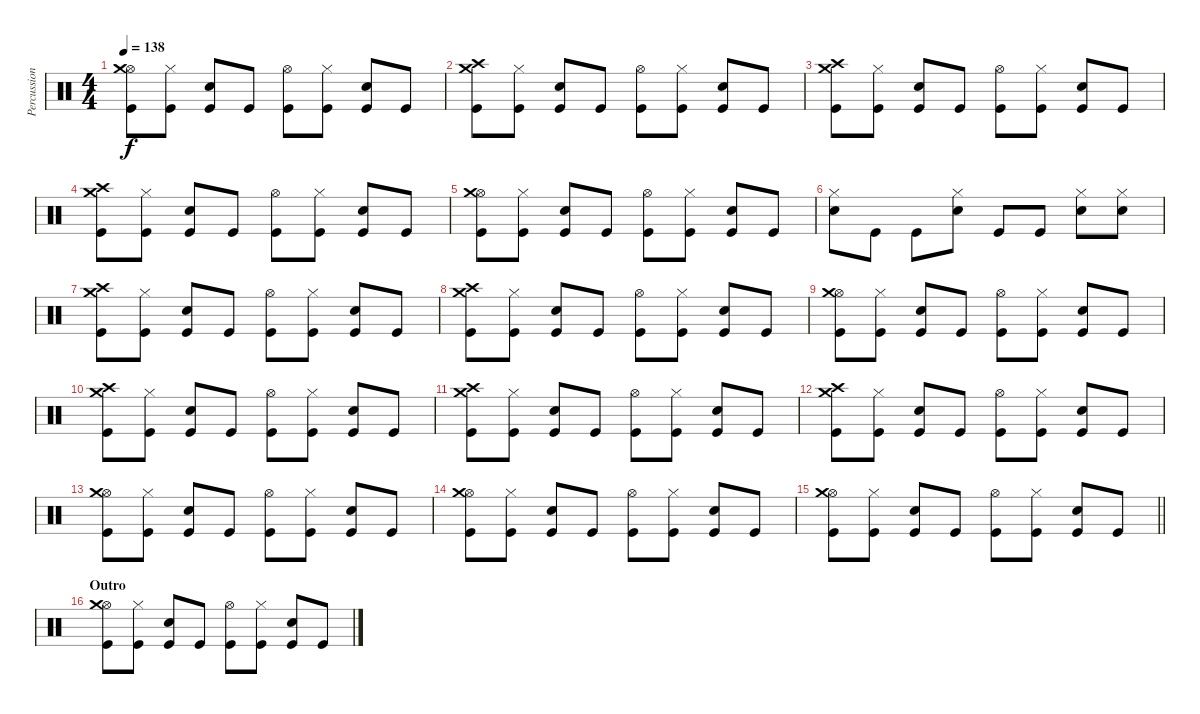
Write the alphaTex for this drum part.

\track ("Percussioni" "Percussion") {instrument percussion}
\staff {score}
\articulation defaults
\ts (4 4)
\tempo 138
\clef neutral
\ks c
("Kick (hit)" "Hi-Hat (open)" "Crash medium (hit)").8{dy f} ("Hi-Hat (closed)" "Kick (hit)").8 ("Electric Snare (hit)" "Kick (hit)").8 "Kick (hit)".8 ("Hi-Hat (open)" "Kick (hit)").8 ("Hi-Hat (closed)" "Kick (hit)").8 ("Electric Snare (hit)" "Kick (hit)").8 "Kick (hit)".8 |
("Kick (hit)" "Crash high (hit)" "Crash medium (hit)").8 ("Hi-Hat (closed)" "Kick (hit)").8 ("Electric Snare (hit)" "Kick (hit)").8 "Kick (hit)".8 ("Hi-Hat (open)" "Kick (hit)").8 ("Hi-Hat (closed)" "Kick (hit)").8 ("Electric Snare (hit)" "Kick (hit)").8 "Kick (hit)".8 |
("Kick (hit)" "Crash high (hit)" "Crash medium (hit)").8 ("Hi-Hat (closed)" "Kick (hit)").8 ("Electric Snare (hit)" "Kick (hit)").8 "Kick (hit)".8 ("Hi-Hat (open)" "Kick (hit)").8 ("Hi-Hat (closed)" "Kick (hit)").8 ("Electric Snare (hit)" "Kick (hit)").8 "Kick (hit)".8 |
("Kick (hit)" "Crash high (hit)" "Crash medium (hit)").8 ("Hi-Hat (closed)" "Kick (hit)").8 ("Electric Snare (hit)" "Kick (hit)").8 "Kick (hit)".8 ("Hi-Hat (open)" "Kick (hit)").8 ("Hi-Hat (closed)" "Kick (hit)").8 ("Electric Snare (hit)" "Kick (hit)").8 "Kick (hit)".8 |
("Kick (hit)" "Hi-Hat (open)" "Crash medium (hit)").8 ("Hi-Hat (closed)" "Kick (hit)").8 ("Electric Snare (hit)" "Kick (hit)").8 "Kick (hit)".8 ("Hi-Hat (open)" "Kick (hit)").8 ("Hi-Hat (closed)" "Kick (hit)").8 ("Electric Snare (hit)" "Kick (hit)").8 "Kick (hit)".8 |
("Electric Snare (hit)" "Hi-Hat (closed)").8 "Kick (hit)".8 "Kick (hit)".8 ("Electric Snare (hit)" "Hi-Hat (closed)").8 "Kick (hit)".8 "Kick (hit)".8 ("Electric Snare (hit)" "Hi-Hat (closed)").8 ("Electric Snare (hit)" "Hi-Hat (closed)").8 |
("Kick (hit)" "Crash high (hit)" "Crash medium (hit)").8 ("Hi-Hat (closed)" "Kick (hit)").8 ("Electric Snare (hit)" "Kick (hit)").8 "Kick (hit)".8 ("Hi-Hat (open)" "Kick (hit)").8 ("Hi-Hat (closed)" "Kick (hit)").8 ("Electric Snare (hit)" "Kick (hit)").8 "Kick (hit)".8 |
("Kick (hit)" "Crash high (hit)" "Crash medium (hit)").8 ("Hi-Hat (closed)" "Kick (hit)").8 ("Electric Snare (hit)" "Kick (hit)").8 "Kick (hit)".8 ("Hi-Hat (open)" "Kick (hit)").8 ("Hi-Hat (closed)" "Kick (hit)").8 ("Electric Snare (hit)" "Kick (hit)").8 "Kick (hit)".8 |
("Kick (hit)" "Hi-Hat (open)" "Crash medium (hit)").8 ("Hi-Hat (closed)" "Kick (hit)").8 ("Electric Snare (hit)" "Kick (hit)").8 "Kick (hit)".8 ("Hi-Hat (open)" "Kick (hit)").8 ("Hi-Hat (closed)" "Kick (hit)").8 ("Electric Snare (hit)" "Kick (hit)").8 "Kick (hit)".8 |
("Kick (hit)" "Crash high (hit)" "Crash medium (hit)").8 ("Hi-Hat (closed)" "Kick (hit)").8 ("Electric Snare (hit)" "Kick (hit)").8 "Kick (hit)".8 ("Hi-Hat (open)" "Kick (hit)").8 ("Hi-Hat (closed)" "Kick (hit)").8 ("Electric Snare (hit)" "Kick (hit)").8 "Kick (hit)".8 |
("Kick (hit)" "Crash high (hit)" "Crash medium (hit)").8 ("Hi-Hat (closed)" "Kick (hit)").8 ("Electric Snare (hit)" "Kick (hit)").8 "Kick (hit)".8 ("Hi-Hat (open)" "Kick (hit)").8 ("Hi-Hat (closed)" "Kick (hit)").8 ("Electric Snare (hit)" "Kick (hit)").8 "Kick (hit)".8 |
("Kick (hit)" "Crash high (hit)" "Crash medium (hit)").8 ("Hi-Hat (closed)" "Kick (hit)").8 ("Electric Snare (hit)" "Kick (hit)").8 "Kick (hit)".8 ("Hi-Hat (open)" "Kick (hit)").8 ("Hi-Hat (closed)" "Kick (hit)").8 ("Electric Snare (hit)" "Kick (hit)").8 "Kick (hit)".8 |
("Kick (hit)" "Hi-Hat (open)" "Crash medium (hit)").8 ("Hi-Hat (closed)" "Kick (hit)").8 ("Electric Snare (hit)" "Kick (hit)").8 "Kick (hit)".8 ("Hi-Hat (open)" "Kick (hit)").8 ("Hi-Hat (closed)" "Kick (hit)").8 ("Electric Snare (hit)" "Kick (hit)").8 "Kick (hit)".8 |
("Kick (hit)" "Hi-Hat (open)" "Crash medium (hit)").8 ("Hi-Hat (closed)" "Kick (hit)").8 ("Electric Snare (hit)" "Kick (hit)").8 "Kick (hit)".8 ("Hi-Hat (open)" "Kick (hit)").8 ("Hi-Hat (closed)" "Kick (hit)").8 ("Electric Snare (hit)" "Kick (hit)").8 "Kick (hit)".8 |
\barLineRight lightlight
("Kick (hit)" "Hi-Hat (open)" "Crash medium (hit)").8 ("Hi-Hat (closed)" "Kick (hit)").8 ("Electric Snare (hit)" "Kick (hit)").8 "Kick (hit)".8 ("Hi-Hat (open)" "Kick (hit)").8 ("Hi-Hat (closed)" "Kick (hit)").8 ("Electric Snare (hit)" "Kick (hit)").8 "Kick (hit)".8 |
\section ("" "Outro")
("Kick (hit)" "Hi-Hat (open)" "Crash medium (hit)").8 ("Hi-Hat (closed)" "Kick (hit)").8 ("Electric Snare (hit)" "Kick (hit)").8 "Kick (hit)".8 ("Hi-Hat (open)" "Kick (hit)").8 ("Hi-Hat (closed)" "Kick (hit)").8 ("Electric Snare (hit)" "Kick (hit)").8 "Kick (hit)".8
